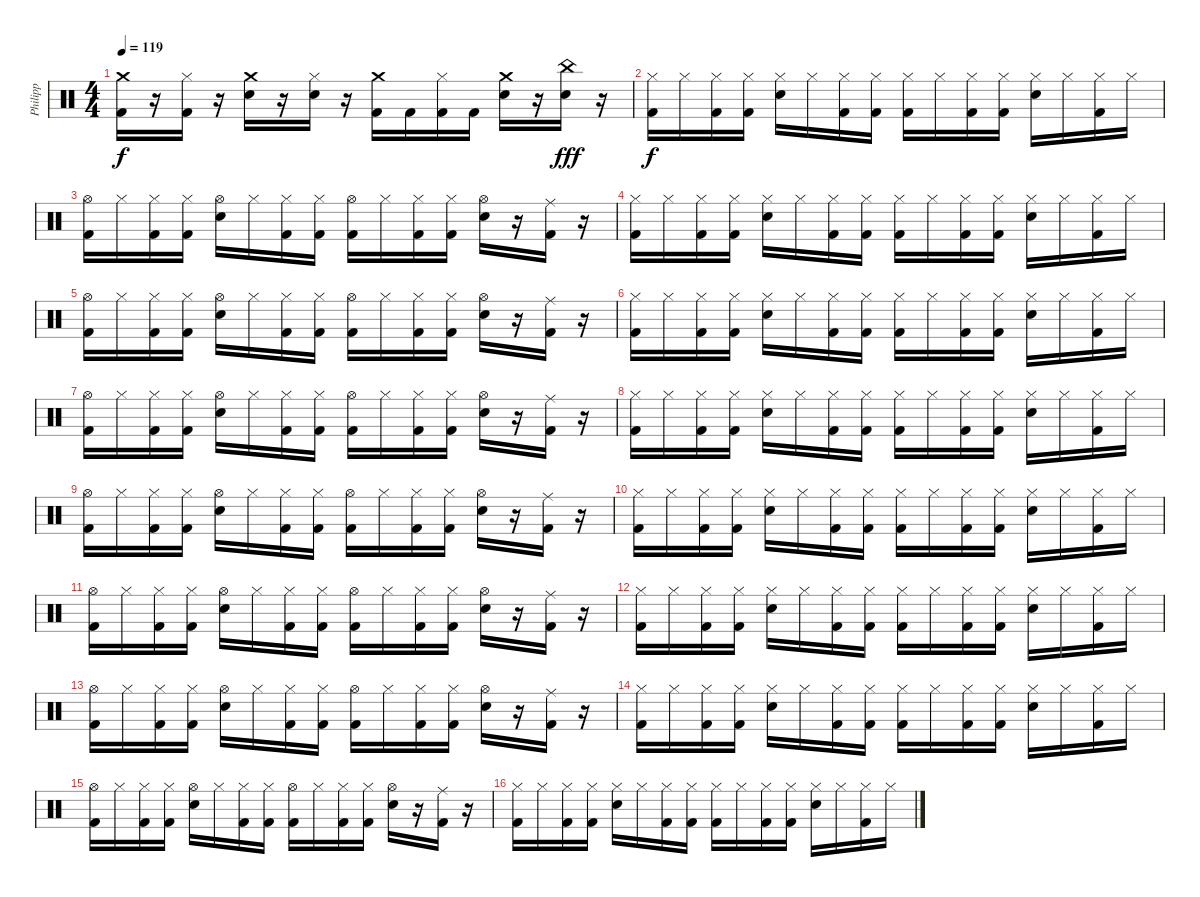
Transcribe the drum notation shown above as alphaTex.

\track ("Philipp" "Philipp") {instrument percussion}
\staff {score}
\articulation defaults
\ts (4 4)
\tempo 119
\clef neutral
\ks c
("Crash medium (hit)" "Kick (hit) 2").16{dy f} r.16 ("Hi-Hat (closed)" "Kick (hit) 2").16 r.16 ("Crash medium (hit)" "Electric Snare (hit)").16 r.16 ("Hi-Hat (closed)" "Electric Snare (hit)").16 r.16 ("Crash medium (hit)" "Kick (hit) 2").16 "Kick (hit) 2".16 ("Hi-Hat (closed)" "Kick (hit) 2").16 "Kick (hit) 2".16 ("Crash medium (hit)" "Electric Snare (hit)").16 r.16 ("China (hit)" "Electric Snare (hit)").16{dy fff} r.16 |
("Hi-Hat (closed)" "Kick (hit) 2").16{dy f} "Hi-Hat (closed)".16 ("Hi-Hat (closed)" "Kick (hit) 2").16 ("Hi-Hat (closed)" "Kick (hit) 2").16 ("Hi-Hat (closed)" "Electric Snare (hit)").16 "Hi-Hat (closed)".16 ("Hi-Hat (closed)" "Kick (hit) 2").16 ("Hi-Hat (closed)" "Kick (hit) 2").16 ("Hi-Hat (closed)" "Kick (hit) 2").16 "Hi-Hat (closed)".16 ("Hi-Hat (closed)" "Kick (hit) 2").16 ("Hi-Hat (closed)" "Kick (hit) 2").16 ("Hi-Hat (closed)" "Electric Snare (hit)").16 "Hi-Hat (closed)".16 ("Hi-Hat (closed)" "Kick (hit) 2").16 "Hi-Hat (closed)".16 |
("Hi-Hat (open)" "Kick (hit) 2").16 "Hi-Hat (closed)".16 ("Hi-Hat (closed)" "Kick (hit) 2").16 ("Hi-Hat (closed)" "Kick (hit) 2").16 ("Hi-Hat (open)" "Electric Snare (hit)").16 "Hi-Hat (closed)".16 ("Hi-Hat (closed)" "Kick (hit) 2").16 ("Hi-Hat (closed)" "Kick (hit) 2").16 ("Hi-Hat (open)" "Kick (hit) 2").16 "Hi-Hat (closed)".16 ("Hi-Hat (closed)" "Kick (hit) 2").16 ("Hi-Hat (closed)" "Kick (hit) 2").16 ("Hi-Hat (open)" "Electric Snare (hit)").16 r.16 ("Ride (middle)" "Kick (hit) 2").16 r.16 |
("Hi-Hat (closed)" "Kick (hit) 2").16 "Hi-Hat (closed)".16 ("Hi-Hat (closed)" "Kick (hit) 2").16 ("Hi-Hat (closed)" "Kick (hit) 2").16 ("Hi-Hat (closed)" "Electric Snare (hit)").16 "Hi-Hat (closed)".16 ("Hi-Hat (closed)" "Kick (hit) 2").16 ("Hi-Hat (closed)" "Kick (hit) 2").16 ("Hi-Hat (closed)" "Kick (hit) 2").16 "Hi-Hat (closed)".16 ("Hi-Hat (closed)" "Kick (hit) 2").16 ("Hi-Hat (closed)" "Kick (hit) 2").16 ("Hi-Hat (closed)" "Electric Snare (hit)").16 "Hi-Hat (closed)".16 ("Hi-Hat (closed)" "Kick (hit) 2").16 "Hi-Hat (closed)".16 |
("Hi-Hat (open)" "Kick (hit) 2").16 "Hi-Hat (closed)".16 ("Hi-Hat (closed)" "Kick (hit) 2").16 ("Hi-Hat (closed)" "Kick (hit) 2").16 ("Hi-Hat (open)" "Electric Snare (hit)").16 "Hi-Hat (closed)".16 ("Hi-Hat (closed)" "Kick (hit) 2").16 ("Hi-Hat (closed)" "Kick (hit) 2").16 ("Hi-Hat (open)" "Kick (hit) 2").16 "Hi-Hat (closed)".16 ("Hi-Hat (closed)" "Kick (hit) 2").16 ("Hi-Hat (closed)" "Kick (hit) 2").16 ("Hi-Hat (open)" "Electric Snare (hit)").16 r.16 ("Ride (middle)" "Kick (hit) 2").16 r.16 |
("Hi-Hat (closed)" "Kick (hit) 2").16 "Hi-Hat (closed)".16 ("Hi-Hat (closed)" "Kick (hit) 2").16 ("Hi-Hat (closed)" "Kick (hit) 2").16 ("Hi-Hat (closed)" "Electric Snare (hit)").16 "Hi-Hat (closed)".16 ("Hi-Hat (closed)" "Kick (hit) 2").16 ("Hi-Hat (closed)" "Kick (hit) 2").16 ("Hi-Hat (closed)" "Kick (hit) 2").16 "Hi-Hat (closed)".16 ("Hi-Hat (closed)" "Kick (hit) 2").16 ("Hi-Hat (closed)" "Kick (hit) 2").16 ("Hi-Hat (closed)" "Electric Snare (hit)").16 "Hi-Hat (closed)".16 ("Hi-Hat (closed)" "Kick (hit) 2").16 "Hi-Hat (closed)".16 |
("Hi-Hat (open)" "Kick (hit) 2").16 "Hi-Hat (closed)".16 ("Hi-Hat (closed)" "Kick (hit) 2").16 ("Hi-Hat (closed)" "Kick (hit) 2").16 ("Hi-Hat (open)" "Electric Snare (hit)").16 "Hi-Hat (closed)".16 ("Hi-Hat (closed)" "Kick (hit) 2").16 ("Hi-Hat (closed)" "Kick (hit) 2").16 ("Hi-Hat (open)" "Kick (hit) 2").16 "Hi-Hat (closed)".16 ("Hi-Hat (closed)" "Kick (hit) 2").16 ("Hi-Hat (closed)" "Kick (hit) 2").16 ("Hi-Hat (open)" "Electric Snare (hit)").16 r.16 ("Ride (middle)" "Kick (hit) 2").16 r.16 |
("Hi-Hat (closed)" "Kick (hit) 2").16 "Hi-Hat (closed)".16 ("Hi-Hat (closed)" "Kick (hit) 2").16 ("Hi-Hat (closed)" "Kick (hit) 2").16 ("Hi-Hat (closed)" "Electric Snare (hit)").16 "Hi-Hat (closed)".16 ("Hi-Hat (closed)" "Kick (hit) 2").16 ("Hi-Hat (closed)" "Kick (hit) 2").16 ("Hi-Hat (closed)" "Kick (hit) 2").16 "Hi-Hat (closed)".16 ("Hi-Hat (closed)" "Kick (hit) 2").16 ("Hi-Hat (closed)" "Kick (hit) 2").16 ("Hi-Hat (closed)" "Electric Snare (hit)").16 "Hi-Hat (closed)".16 ("Hi-Hat (closed)" "Kick (hit) 2").16 "Hi-Hat (closed)".16 |
("Hi-Hat (open)" "Kick (hit) 2").16 "Hi-Hat (closed)".16 ("Hi-Hat (closed)" "Kick (hit) 2").16 ("Hi-Hat (closed)" "Kick (hit) 2").16 ("Hi-Hat (open)" "Electric Snare (hit)").16 "Hi-Hat (closed)".16 ("Hi-Hat (closed)" "Kick (hit) 2").16 ("Hi-Hat (closed)" "Kick (hit) 2").16 ("Hi-Hat (open)" "Kick (hit) 2").16 "Hi-Hat (closed)".16 ("Hi-Hat (closed)" "Kick (hit) 2").16 ("Hi-Hat (closed)" "Kick (hit) 2").16 ("Hi-Hat (open)" "Electric Snare (hit)").16 r.16 ("Ride (middle)" "Kick (hit) 2").16 r.16 |
("Hi-Hat (closed)" "Kick (hit) 2").16 "Hi-Hat (closed)".16 ("Hi-Hat (closed)" "Kick (hit) 2").16 ("Hi-Hat (closed)" "Kick (hit) 2").16 ("Hi-Hat (closed)" "Electric Snare (hit)").16 "Hi-Hat (closed)".16 ("Hi-Hat (closed)" "Kick (hit) 2").16 ("Hi-Hat (closed)" "Kick (hit) 2").16 ("Hi-Hat (closed)" "Kick (hit) 2").16 "Hi-Hat (closed)".16 ("Hi-Hat (closed)" "Kick (hit) 2").16 ("Hi-Hat (closed)" "Kick (hit) 2").16 ("Hi-Hat (closed)" "Electric Snare (hit)").16 "Hi-Hat (closed)".16 ("Hi-Hat (closed)" "Kick (hit) 2").16 "Hi-Hat (closed)".16 |
("Hi-Hat (open)" "Kick (hit) 2").16 "Hi-Hat (closed)".16 ("Hi-Hat (closed)" "Kick (hit) 2").16 ("Hi-Hat (closed)" "Kick (hit) 2").16 ("Hi-Hat (open)" "Electric Snare (hit)").16 "Hi-Hat (closed)".16 ("Hi-Hat (closed)" "Kick (hit) 2").16 ("Hi-Hat (closed)" "Kick (hit) 2").16 ("Hi-Hat (open)" "Kick (hit) 2").16 "Hi-Hat (closed)".16 ("Hi-Hat (closed)" "Kick (hit) 2").16 ("Hi-Hat (closed)" "Kick (hit) 2").16 ("Hi-Hat (open)" "Electric Snare (hit)").16 r.16 ("Ride (middle)" "Kick (hit) 2").16 r.16 |
("Hi-Hat (closed)" "Kick (hit) 2").16 "Hi-Hat (closed)".16 ("Hi-Hat (closed)" "Kick (hit) 2").16 ("Hi-Hat (closed)" "Kick (hit) 2").16 ("Hi-Hat (closed)" "Electric Snare (hit)").16 "Hi-Hat (closed)".16 ("Hi-Hat (closed)" "Kick (hit) 2").16 ("Hi-Hat (closed)" "Kick (hit) 2").16 ("Hi-Hat (closed)" "Kick (hit) 2").16 "Hi-Hat (closed)".16 ("Hi-Hat (closed)" "Kick (hit) 2").16 ("Hi-Hat (closed)" "Kick (hit) 2").16 ("Hi-Hat (closed)" "Electric Snare (hit)").16 "Hi-Hat (closed)".16 ("Hi-Hat (closed)" "Kick (hit) 2").16 "Hi-Hat (closed)".16 |
("Hi-Hat (open)" "Kick (hit) 2").16 "Hi-Hat (closed)".16 ("Hi-Hat (closed)" "Kick (hit) 2").16 ("Hi-Hat (closed)" "Kick (hit) 2").16 ("Hi-Hat (open)" "Electric Snare (hit)").16 "Hi-Hat (closed)".16 ("Hi-Hat (closed)" "Kick (hit) 2").16 ("Hi-Hat (closed)" "Kick (hit) 2").16 ("Hi-Hat (open)" "Kick (hit) 2").16 "Hi-Hat (closed)".16 ("Hi-Hat (closed)" "Kick (hit) 2").16 ("Hi-Hat (closed)" "Kick (hit) 2").16 ("Hi-Hat (open)" "Electric Snare (hit)").16 r.16 ("Ride (middle)" "Kick (hit) 2").16 r.16 |
("Hi-Hat (closed)" "Kick (hit) 2").16 "Hi-Hat (closed)".16 ("Hi-Hat (closed)" "Kick (hit) 2").16 ("Hi-Hat (closed)" "Kick (hit) 2").16 ("Hi-Hat (closed)" "Electric Snare (hit)").16 "Hi-Hat (closed)".16 ("Hi-Hat (closed)" "Kick (hit) 2").16 ("Hi-Hat (closed)" "Kick (hit) 2").16 ("Hi-Hat (closed)" "Kick (hit) 2").16 "Hi-Hat (closed)".16 ("Hi-Hat (closed)" "Kick (hit) 2").16 ("Hi-Hat (closed)" "Kick (hit) 2").16 ("Hi-Hat (closed)" "Electric Snare (hit)").16 "Hi-Hat (closed)".16 ("Hi-Hat (closed)" "Kick (hit) 2").16 "Hi-Hat (closed)".16 |
("Hi-Hat (open)" "Kick (hit) 2").16 "Hi-Hat (closed)".16 ("Hi-Hat (closed)" "Kick (hit) 2").16 ("Hi-Hat (closed)" "Kick (hit) 2").16 ("Hi-Hat (open)" "Electric Snare (hit)").16 "Hi-Hat (closed)".16 ("Hi-Hat (closed)" "Kick (hit) 2").16 ("Hi-Hat (closed)" "Kick (hit) 2").16 ("Hi-Hat (open)" "Kick (hit) 2").16 "Hi-Hat (closed)".16 ("Hi-Hat (closed)" "Kick (hit) 2").16 ("Hi-Hat (closed)" "Kick (hit) 2").16 ("Hi-Hat (open)" "Electric Snare (hit)").16 r.16 ("Ride (middle)" "Kick (hit) 2").16 r.16 |
("Hi-Hat (closed)" "Kick (hit) 2").16 "Hi-Hat (closed)".16 ("Hi-Hat (closed)" "Kick (hit) 2").16 ("Hi-Hat (closed)" "Kick (hit) 2").16 ("Hi-Hat (closed)" "Electric Snare (hit)").16 "Hi-Hat (closed)".16 ("Hi-Hat (closed)" "Kick (hit) 2").16 ("Hi-Hat (closed)" "Kick (hit) 2").16 ("Hi-Hat (closed)" "Kick (hit) 2").16 "Hi-Hat (closed)".16 ("Hi-Hat (closed)" "Kick (hit) 2").16 ("Hi-Hat (closed)" "Kick (hit) 2").16 ("Hi-Hat (closed)" "Electric Snare (hit)").16 "Hi-Hat (closed)".16 ("Hi-Hat (closed)" "Kick (hit) 2").16 "Hi-Hat (closed)".16
